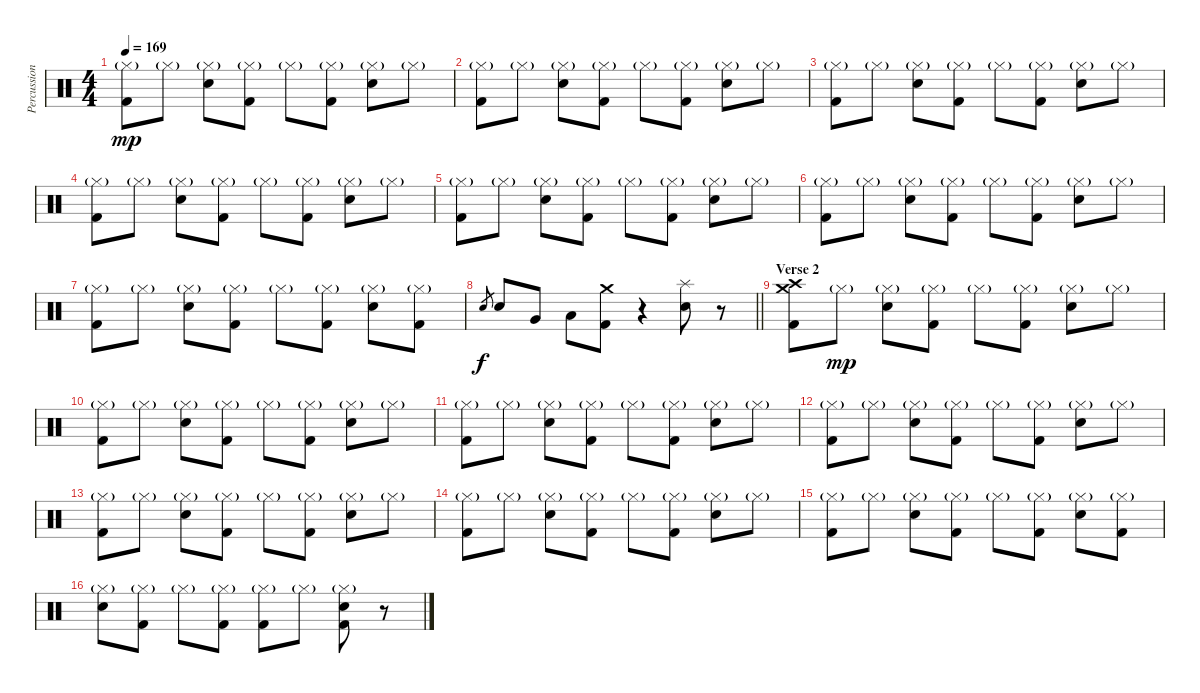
\track ("Percussion" "Percussion") {instrument percussion}
\staff {score}
\articulation defaults
\ts (4 4)
\tempo 169
\clef neutral
\ks c
("Hi-Hat (closed)"{g} "Kick (hit) 2").8{dy mp} "Hi-Hat (closed)"{g}.8 ("Hi-Hat (closed)"{g} "Snare (hit) 2").8 ("Hi-Hat (closed)"{g} "Kick (hit) 2").8 "Hi-Hat (closed)"{g}.8 ("Hi-Hat (closed)"{g} "Kick (hit) 2").8 ("Hi-Hat (closed)"{g} "Snare (hit) 2").8 "Hi-Hat (closed)"{g}.8 |
("Hi-Hat (closed)"{g} "Kick (hit) 2").8 "Hi-Hat (closed)"{g}.8 ("Hi-Hat (closed)"{g} "Snare (hit) 2").8 ("Hi-Hat (closed)"{g} "Kick (hit) 2").8 "Hi-Hat (closed)"{g}.8 ("Hi-Hat (closed)"{g} "Kick (hit) 2").8 ("Hi-Hat (closed)"{g} "Snare (hit) 2").8 "Hi-Hat (closed)"{g}.8 |
("Hi-Hat (closed)"{g} "Kick (hit) 2").8 "Hi-Hat (closed)"{g}.8 ("Hi-Hat (closed)"{g} "Snare (hit) 2").8 ("Hi-Hat (closed)"{g} "Kick (hit) 2").8 "Hi-Hat (closed)"{g}.8 ("Hi-Hat (closed)"{g} "Kick (hit) 2").8 ("Hi-Hat (closed)"{g} "Snare (hit) 2").8 "Hi-Hat (closed)"{g}.8 |
("Hi-Hat (closed)"{g} "Kick (hit) 2").8 "Hi-Hat (closed)"{g}.8 ("Hi-Hat (closed)"{g} "Snare (hit) 2").8 ("Hi-Hat (closed)"{g} "Kick (hit) 2").8 "Hi-Hat (closed)"{g}.8 ("Hi-Hat (closed)"{g} "Kick (hit) 2").8 ("Hi-Hat (closed)"{g} "Snare (hit) 2").8 "Hi-Hat (closed)"{g}.8 |
("Hi-Hat (closed)"{g} "Kick (hit) 2").8 "Hi-Hat (closed)"{g}.8 ("Hi-Hat (closed)"{g} "Snare (hit) 2").8 ("Hi-Hat (closed)"{g} "Kick (hit) 2").8 "Hi-Hat (closed)"{g}.8 ("Hi-Hat (closed)"{g} "Kick (hit) 2").8 ("Hi-Hat (closed)"{g} "Snare (hit) 2").8 "Hi-Hat (closed)"{g}.8 |
("Hi-Hat (closed)"{g} "Kick (hit) 2").8 "Hi-Hat (closed)"{g}.8 ("Hi-Hat (closed)"{g} "Snare (hit) 2").8 ("Hi-Hat (closed)"{g} "Kick (hit) 2").8 "Hi-Hat (closed)"{g}.8 ("Hi-Hat (closed)"{g} "Kick (hit) 2").8 ("Hi-Hat (closed)"{g} "Snare (hit) 2").8 "Hi-Hat (closed)"{g}.8 |
("Hi-Hat (closed)"{g} "Kick (hit) 2").8 "Hi-Hat (closed)"{g}.8 ("Hi-Hat (closed)"{g} "Snare (hit) 2").8 ("Hi-Hat (closed)"{g} "Kick (hit) 2").8 "Hi-Hat (closed)"{g}.8 ("Hi-Hat (closed)"{g} "Kick (hit) 2").8 ("Hi-Hat (closed)"{g} "Snare (hit) 2").8 ("Hi-Hat (closed)"{g} "Kick (hit) 2").8 |
\barLineRight lightlight "Snare (hit) 2".8{gr dy f} "Snare (hit) 2".8 "Very Low Tom (hit)".8 "Low Tom (hit)".8
("Crash medium (hit)" "Kick (hit) 2").8 r.4 ("Snare (hit) 2" "Splash (hit)").8 r.8 |
\section ("" "Verse 2")
("Crash high (hit)" "Crash medium (hit)" "Kick (hit) 2").8 "Hi-Hat (closed)"{g}.8{dy mp} ("Hi-Hat (closed)"{g} "Snare (hit) 2").8 ("Hi-Hat (closed)"{g} "Kick (hit) 2").8 "Hi-Hat (closed)"{g}.8 ("Hi-Hat (closed)"{g} "Kick (hit) 2").8 ("Hi-Hat (closed)"{g} "Snare (hit) 2").8 "Hi-Hat (closed)"{g}.8 |
("Hi-Hat (closed)"{g} "Kick (hit) 2").8 "Hi-Hat (closed)"{g}.8 ("Hi-Hat (closed)"{g} "Snare (hit) 2").8 ("Hi-Hat (closed)"{g} "Kick (hit) 2").8 "Hi-Hat (closed)"{g}.8 ("Hi-Hat (closed)"{g} "Kick (hit) 2").8 ("Hi-Hat (closed)"{g} "Snare (hit) 2").8 "Hi-Hat (closed)"{g}.8 |
("Hi-Hat (closed)"{g} "Kick (hit) 2").8 "Hi-Hat (closed)"{g}.8 ("Hi-Hat (closed)"{g} "Snare (hit) 2").8 ("Hi-Hat (closed)"{g} "Kick (hit) 2").8 "Hi-Hat (closed)"{g}.8 ("Hi-Hat (closed)"{g} "Kick (hit) 2").8 ("Hi-Hat (closed)"{g} "Snare (hit) 2").8 "Hi-Hat (closed)"{g}.8 |
("Hi-Hat (closed)"{g} "Kick (hit) 2").8 "Hi-Hat (closed)"{g}.8 ("Hi-Hat (closed)"{g} "Snare (hit) 2").8 ("Hi-Hat (closed)"{g} "Kick (hit) 2").8 "Hi-Hat (closed)"{g}.8 ("Hi-Hat (closed)"{g} "Kick (hit) 2").8 ("Hi-Hat (closed)"{g} "Snare (hit) 2").8 "Hi-Hat (closed)"{g}.8 |
("Hi-Hat (closed)"{g} "Kick (hit) 2").8 "Hi-Hat (closed)"{g}.8 ("Hi-Hat (closed)"{g} "Snare (hit) 2").8 ("Hi-Hat (closed)"{g} "Kick (hit) 2").8 "Hi-Hat (closed)"{g}.8 ("Hi-Hat (closed)"{g} "Kick (hit) 2").8 ("Hi-Hat (closed)"{g} "Snare (hit) 2").8 "Hi-Hat (closed)"{g}.8 |
("Hi-Hat (closed)"{g} "Kick (hit) 2").8 "Hi-Hat (closed)"{g}.8 ("Hi-Hat (closed)"{g} "Snare (hit) 2").8 ("Hi-Hat (closed)"{g} "Kick (hit) 2").8 "Hi-Hat (closed)"{g}.8 ("Hi-Hat (closed)"{g} "Kick (hit) 2").8 ("Hi-Hat (closed)"{g} "Snare (hit) 2").8 "Hi-Hat (closed)"{g}.8 |
("Hi-Hat (closed)"{g} "Kick (hit) 2").8 "Hi-Hat (closed)"{g}.8 ("Hi-Hat (closed)"{g} "Snare (hit) 2").8 ("Hi-Hat (closed)"{g} "Kick (hit) 2").8 "Hi-Hat (closed)"{g}.8 ("Hi-Hat (closed)"{g} "Kick (hit) 2").8 ("Hi-Hat (closed)"{g} "Snare (hit) 2").8 ("Hi-Hat (closed)"{g} "Kick (hit) 2").8 |
("Hi-Hat (closed)"{g} "Snare (hit) 2").8 ("Hi-Hat (closed)"{g} "Kick (hit) 2").8 "Hi-Hat (closed)"{g}.8 ("Hi-Hat (closed)"{g} "Kick (hit) 2").8 ("Hi-Hat (closed)"{g} "Kick (hit) 2").8 "Hi-Hat (closed)"{g}.8 ("Hi-Hat (closed)"{g} "Snare (hit) 2" "Kick (hit) 2").8 r.8
